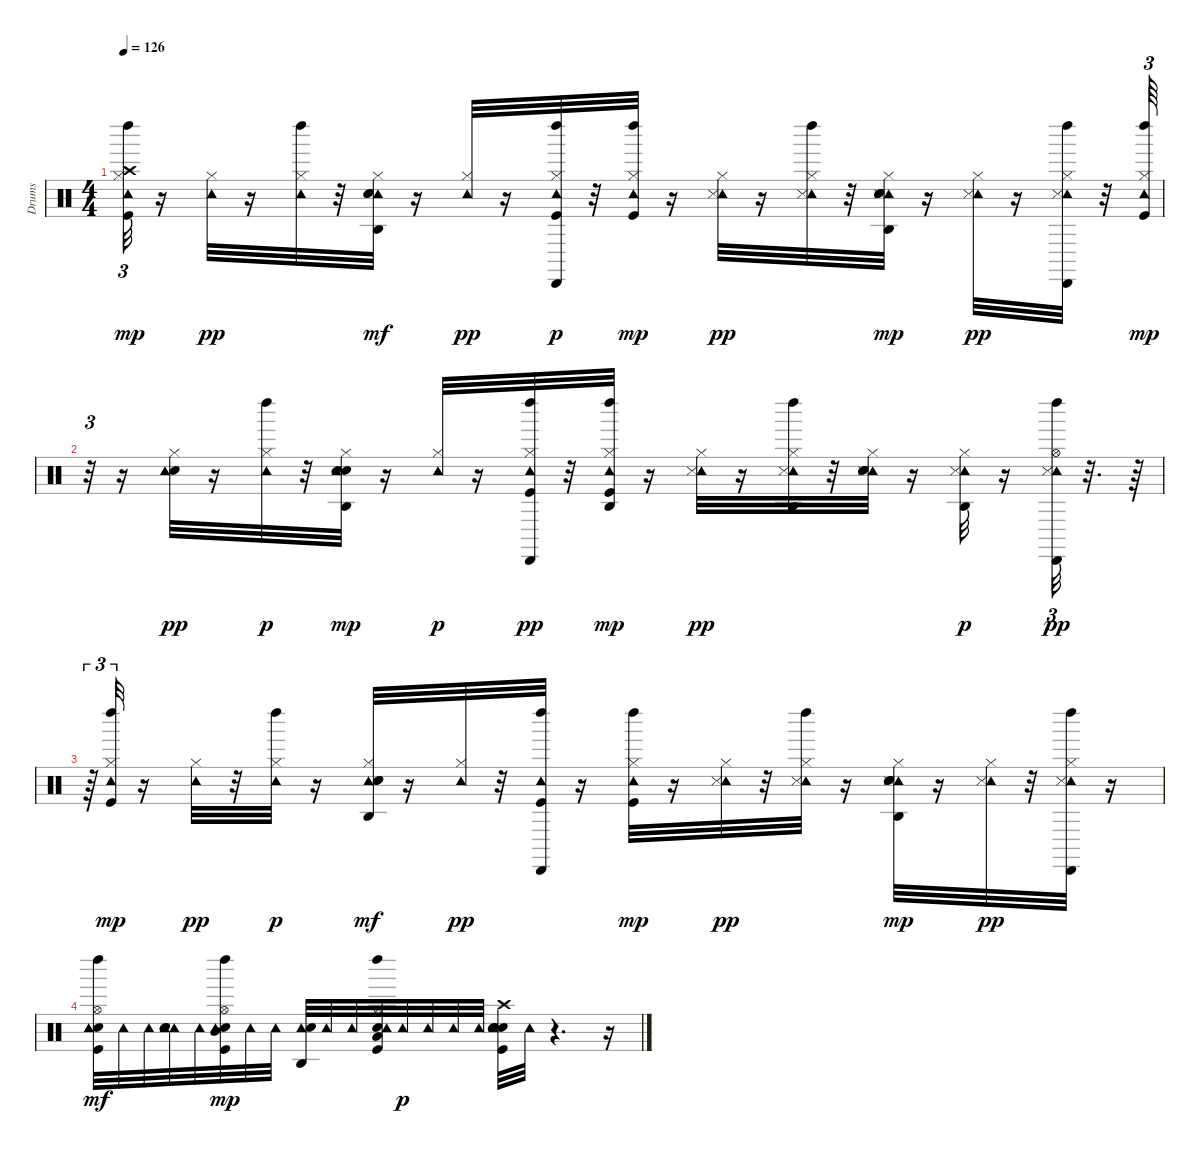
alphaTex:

\track ("Drums" "Drums") {instrument percussion}
\staff {score}
\articulation defaults
\ts (4 4)
\tempo 126
\clef neutral
\ks c
("Crash high (hit)" "Kick (hit)" "Hi-Hat (closed)" "Left Maraca (hit)" "Tambourine (hit)").32{tu (3 2) dy mp} r.16 ("Hi-Hat (closed)" "Tambourine (hit)").32{dy pp} r.16 ("Hi-Hat (closed)" "Tambourine (hit)" "Left Maraca (hit)").32 r.32 ("Hi-Hat (closed)" "Tambourine (hit)" "Agogo high (hit)" "Snare (hit) 2" "Hand Clap (hit)").32{dy mf} r.16 ("Hi-Hat (closed)" "Tambourine (hit)").32{dy pp} r.16 ("Cabasa (hit)" "Kick (hit)" "Hi-Hat (closed)" "Tambourine (hit)" "Left Maraca (hit)").32{dy p} r.32 ("Hi-Hat (closed)" "Tambourine (hit)" "Kick (hit)" "Left Maraca (hit)").32{dy mp} r.16 ("Hi-Hat (closed)" "Tambourine (hit)" "Snare (side stick) 3").32{dy pp} r.16 ("Hi-Hat (closed)" "Left Maraca (hit)" "Tambourine (hit)" "Snare (side stick) 3").32 r.32 ("Hi-Hat (closed)" "Tambourine (hit)" "Hand Clap (hit)" "Snare (hit) 2" "Snare (side stick) 3" "Agogo high (hit)").32{dy mp} r.16 ("Hi-Hat (closed)" "Tambourine (hit)" "Snare (side stick) 3").32{dy pp} r.16 ("Cabasa (hit)" "Hi-Hat (closed)" "Left Maraca (hit)" "Tambourine (hit)" "Snare (side stick) 3").32 r.32 ("Tambourine (hit)" "Kick (hit)" "Hi-Hat (closed)" "Left Maraca (hit)").64{tu (3 2) dy mp} |
r.32{tu (3 2)} r.16 ("Electric Snare (hit)" "Hi-Hat (closed)" "Tambourine (hit)").32{dy pp} r.16 ("Left Maraca (hit)" "Hi-Hat (closed)" "Tambourine (hit)").32{dy p} r.32 ("Snare (hit) 2" "Hi-Hat (closed)" "Tambourine (hit)" "Agogo high (hit)" "Hand Clap (hit)").32{dy mp} r.16 ("Hi-Hat (closed)" "Tambourine (hit)").32{dy p} r.16 ("Kick (hit)" "Hi-Hat (closed)" "Left Maraca (hit)" "Tambourine (hit)" "Cabasa (hit)").32{dy pp} r.32 ("Tambourine (hit)" "Kick (hit)" "Hi-Hat (closed)" "Left Maraca (hit)" "Agogo high (hit)").32{dy mp} r.16 ("Hi-Hat (closed)" "Tambourine (hit)" "Snare (side stick) 3").32{dy pp} r.16 ("Hi-Hat (closed)" "Left Maraca (hit)" "Tambourine (hit)" "Agogo high (hit)" "Snare (side stick) 3").32 r.32 ("Hi-Hat (closed)" "Tambourine (hit)" "Hand Clap (hit)" "Snare (hit) 2" "Snare (side stick) 3").32 r.16 ("Hi-Hat (closed)" "Tambourine (hit)" "Snare (side stick) 3" "Agogo high (hit)").32{dy p} r.16 ("Hi-Hat (open)" "Left Maraca (hit)" "Tambourine (hit)" "Cabasa (hit)" "Snare (side stick) 3").32{tu (3 2) dy pp} r.32{d} r.64 |
r.64{tu (3 2)} ("Kick (hit)" "Hi-Hat (closed)" "Left Maraca (hit)" "Tambourine (hit)").32{tu (3 2) dy mp} r.16 ("Hi-Hat (closed)" "Tambourine (hit)").32{dy pp} r.32 ("Hi-Hat (closed)" "Tambourine (hit)" "Left Maraca (hit)").32{dy p} r.16 ("Hi-Hat (closed)" "Tambourine (hit)" "Agogo high (hit)" "Snare (hit) 2" "Hand Clap (hit)").32{dy mf} r.16 ("Hi-Hat (closed)" "Tambourine (hit)").32{dy pp} r.32 ("Cabasa (hit)" "Kick (hit)" "Tambourine (hit)" "Left Maraca (hit)").32 r.16 ("Hi-Hat (closed)" "Tambourine (hit)" "Kick (hit)" "Left Maraca (hit)").32{dy mp} r.16 ("Hi-Hat (closed)" "Tambourine (hit)" "Snare (side stick) 3").32{dy pp} r.32 ("Hi-Hat (closed)" "Left Maraca (hit)" "Tambourine (hit)" "Snare (side stick) 3").32 r.16 ("Hi-Hat (closed)" "Tambourine (hit)" "Hand Clap (hit)" "Snare (hit) 2" "Snare (side stick) 3" "Agogo high (hit)").32{dy mp} r.16 ("Hi-Hat (closed)" "Tambourine (hit)" "Snare (side stick) 3").32{dy pp} r.32 ("Cabasa (hit)" "Hi-Hat (closed)" "Left Maraca (hit)" "Tambourine (hit)" "Snare (side stick) 3").32 r.16 |
("Snare (hit) 2" "Kick (hit)" "Hi-Hat (open)" "Left Maraca (hit)" "Tambourine (hit)").32{dy mf} "Tambourine (hit)".32 "Tambourine (hit)".32 ("Tambourine (hit)" "Electric Snare (hit)" "Hand Clap (hit)" "Tambourine (hit)").32 "Tambourine (hit)".32 ("Mid Tom (hit)" "Kick (hit)" "Snare (hit) 2" "Hi-Hat (open)" "Left Maraca (hit)" "Tambourine (hit)").32{dy mp} "Tambourine (hit)".32 "Tambourine (hit)".32 ("Tambourine (hit)" "Agogo high (hit)" "Hand Clap (hit)").32 "Tambourine (hit)".32 "Tambourine (hit)".32 ("Low Tom (hit)" "Kick (hit)" "Snare (hit) 2" "Hi-Hat (open)" "Left Maraca (hit)" "Tambourine (hit)").32 "Tambourine (hit)".32{dy p} "Tambourine (hit)".32 "Tambourine (hit)".32 "Tambourine (hit)".32 ("Electric Snare (hit)" "Kick (hit)" "Crash high (hit)" "Tambourine (hit)" "Hand Clap (hit)" "Snare (hit) 2").32 "Tambourine (hit)".32 r.4{d} r.16
